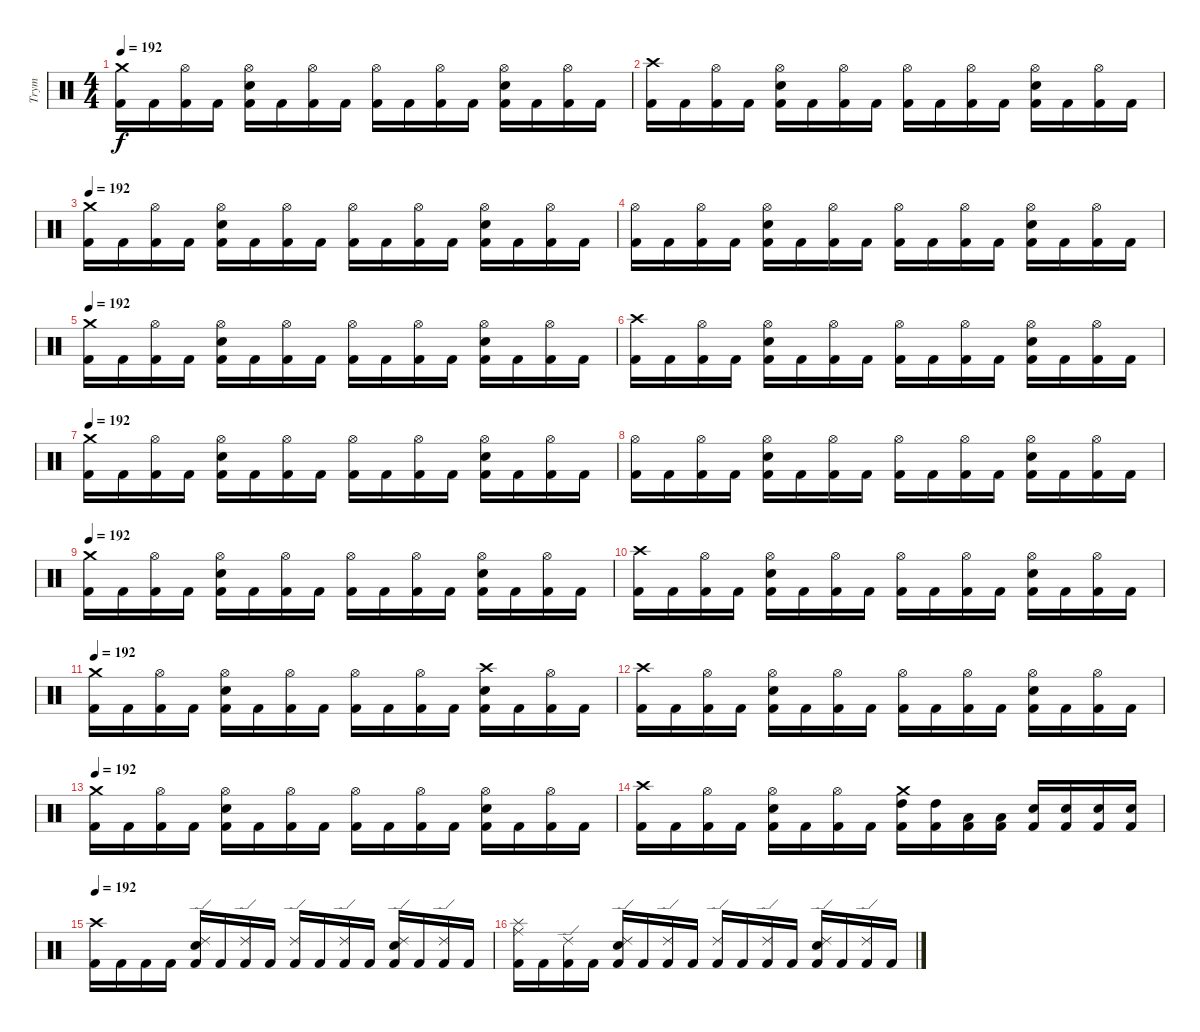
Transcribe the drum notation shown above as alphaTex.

\track ("Trym" "Trym") {instrument percussion}
\staff {score}
\articulation defaults
\ts (4 4)
\tempo 192
\clef neutral
\ks c
("Crash medium (hit)" "Kick (hit) 2").16{dy f} "Kick (hit) 2".16 ("Hi-Hat (open)" "Kick (hit) 2").16 "Kick (hit) 2".16 ("Hi-Hat (open)" "Electric Snare (hit)" "Kick (hit) 2").16 "Kick (hit) 2".16 ("Hi-Hat (open)" "Kick (hit) 2").16 "Kick (hit) 2".16 ("Hi-Hat (open)" "Kick (hit) 2").16 "Kick (hit) 2".16 ("Hi-Hat (open)" "Kick (hit) 2").16 "Kick (hit) 2".16 ("Hi-Hat (open)" "Electric Snare (hit)" "Kick (hit) 2").16 "Kick (hit) 2".16 ("Hi-Hat (open)" "Kick (hit) 2").16 "Kick (hit) 2".16 |
("Crash high (hit)" "Kick (hit) 2").16 "Kick (hit) 2".16 ("Hi-Hat (open)" "Kick (hit) 2").16 "Kick (hit) 2".16 ("Hi-Hat (open)" "Electric Snare (hit)" "Kick (hit) 2").16 "Kick (hit) 2".16 ("Hi-Hat (open)" "Kick (hit) 2").16 "Kick (hit) 2".16 ("Hi-Hat (open)" "Kick (hit) 2").16 "Kick (hit) 2".16 ("Hi-Hat (open)" "Kick (hit) 2").16 "Kick (hit) 2".16 ("Hi-Hat (open)" "Electric Snare (hit)" "Kick (hit) 2").16 "Kick (hit) 2".16 ("Hi-Hat (open)" "Kick (hit) 2").16 "Kick (hit) 2".16 |
\tempo 192
("Crash medium (hit)" "Kick (hit) 2").16 "Kick (hit) 2".16 ("Hi-Hat (open)" "Kick (hit) 2").16 "Kick (hit) 2".16 ("Hi-Hat (open)" "Electric Snare (hit)" "Kick (hit) 2").16 "Kick (hit) 2".16 ("Hi-Hat (open)" "Kick (hit) 2").16 "Kick (hit) 2".16 ("Hi-Hat (open)" "Kick (hit) 2").16 "Kick (hit) 2".16 ("Hi-Hat (open)" "Kick (hit) 2").16 "Kick (hit) 2".16 ("Hi-Hat (open)" "Electric Snare (hit)" "Kick (hit) 2").16 "Kick (hit) 2".16 ("Hi-Hat (open)" "Kick (hit) 2").16 "Kick (hit) 2".16 |
("Hi-Hat (open)" "Kick (hit) 2").16 "Kick (hit) 2".16 ("Hi-Hat (open)" "Kick (hit) 2").16 "Kick (hit) 2".16 ("Hi-Hat (open)" "Electric Snare (hit)" "Kick (hit) 2").16 "Kick (hit) 2".16 ("Hi-Hat (open)" "Kick (hit) 2").16 "Kick (hit) 2".16 ("Hi-Hat (open)" "Kick (hit) 2").16 "Kick (hit) 2".16 ("Hi-Hat (open)" "Kick (hit) 2").16 "Kick (hit) 2".16 ("Hi-Hat (open)" "Electric Snare (hit)" "Kick (hit) 2").16 "Kick (hit) 2".16 ("Hi-Hat (open)" "Kick (hit) 2").16 "Kick (hit) 2".16 |
\tempo 192
("Crash medium (hit)" "Kick (hit) 2").16 "Kick (hit) 2".16 ("Hi-Hat (open)" "Kick (hit) 2").16 "Kick (hit) 2".16 ("Hi-Hat (open)" "Electric Snare (hit)" "Kick (hit) 2").16 "Kick (hit) 2".16 ("Hi-Hat (open)" "Kick (hit) 2").16 "Kick (hit) 2".16 ("Hi-Hat (open)" "Kick (hit) 2").16 "Kick (hit) 2".16 ("Hi-Hat (open)" "Kick (hit) 2").16 "Kick (hit) 2".16 ("Hi-Hat (open)" "Electric Snare (hit)" "Kick (hit) 2").16 "Kick (hit) 2".16 ("Hi-Hat (open)" "Kick (hit) 2").16 "Kick (hit) 2".16 |
("Crash high (hit)" "Kick (hit) 2").16 "Kick (hit) 2".16 ("Hi-Hat (open)" "Kick (hit) 2").16 "Kick (hit) 2".16 ("Hi-Hat (open)" "Electric Snare (hit)" "Kick (hit) 2").16 "Kick (hit) 2".16 ("Hi-Hat (open)" "Kick (hit) 2").16 "Kick (hit) 2".16 ("Hi-Hat (open)" "Kick (hit) 2").16 "Kick (hit) 2".16 ("Hi-Hat (open)" "Kick (hit) 2").16 "Kick (hit) 2".16 ("Hi-Hat (open)" "Electric Snare (hit)" "Kick (hit) 2").16 "Kick (hit) 2".16 ("Hi-Hat (open)" "Kick (hit) 2").16 "Kick (hit) 2".16 |
\tempo 192
("Crash medium (hit)" "Kick (hit) 2").16 "Kick (hit) 2".16 ("Hi-Hat (open)" "Kick (hit) 2").16 "Kick (hit) 2".16 ("Hi-Hat (open)" "Electric Snare (hit)" "Kick (hit) 2").16 "Kick (hit) 2".16 ("Hi-Hat (open)" "Kick (hit) 2").16 "Kick (hit) 2".16 ("Hi-Hat (open)" "Kick (hit) 2").16 "Kick (hit) 2".16 ("Hi-Hat (open)" "Kick (hit) 2").16 "Kick (hit) 2".16 ("Hi-Hat (open)" "Electric Snare (hit)" "Kick (hit) 2").16 "Kick (hit) 2".16 ("Hi-Hat (open)" "Kick (hit) 2").16 "Kick (hit) 2".16 |
("Hi-Hat (open)" "Kick (hit) 2").16 "Kick (hit) 2".16 ("Hi-Hat (open)" "Kick (hit) 2").16 "Kick (hit) 2".16 ("Hi-Hat (open)" "Electric Snare (hit)" "Kick (hit) 2").16 "Kick (hit) 2".16 ("Hi-Hat (open)" "Kick (hit) 2").16 "Kick (hit) 2".16 ("Hi-Hat (open)" "Kick (hit) 2").16 "Kick (hit) 2".16 ("Hi-Hat (open)" "Kick (hit) 2").16 "Kick (hit) 2".16 ("Hi-Hat (open)" "Electric Snare (hit)" "Kick (hit) 2").16 "Kick (hit) 2".16 ("Hi-Hat (open)" "Kick (hit) 2").16 "Kick (hit) 2".16 |
\tempo 192
("Crash medium (hit)" "Kick (hit) 2").16 "Kick (hit) 2".16 ("Hi-Hat (open)" "Kick (hit) 2").16 "Kick (hit) 2".16 ("Hi-Hat (open)" "Electric Snare (hit)" "Kick (hit) 2").16 "Kick (hit) 2".16 ("Hi-Hat (open)" "Kick (hit) 2").16 "Kick (hit) 2".16 ("Hi-Hat (open)" "Kick (hit) 2").16 "Kick (hit) 2".16 ("Hi-Hat (open)" "Kick (hit) 2").16 "Kick (hit) 2".16 ("Hi-Hat (open)" "Electric Snare (hit)" "Kick (hit) 2").16 "Kick (hit) 2".16 ("Hi-Hat (open)" "Kick (hit) 2").16 "Kick (hit) 2".16 |
("Crash high (hit)" "Kick (hit) 2").16 "Kick (hit) 2".16 ("Hi-Hat (open)" "Kick (hit) 2").16 "Kick (hit) 2".16 ("Hi-Hat (open)" "Electric Snare (hit)" "Kick (hit) 2").16 "Kick (hit) 2".16 ("Hi-Hat (open)" "Kick (hit) 2").16 "Kick (hit) 2".16 ("Hi-Hat (open)" "Kick (hit) 2").16 "Kick (hit) 2".16 ("Hi-Hat (open)" "Kick (hit) 2").16 "Kick (hit) 2".16 ("Hi-Hat (open)" "Electric Snare (hit)" "Kick (hit) 2").16 "Kick (hit) 2".16 ("Hi-Hat (open)" "Kick (hit) 2").16 "Kick (hit) 2".16 |
\tempo 192
("Crash medium (hit)" "Kick (hit) 2").16 "Kick (hit) 2".16 ("Hi-Hat (open)" "Kick (hit) 2").16 "Kick (hit) 2".16 ("Hi-Hat (open)" "Electric Snare (hit)" "Kick (hit) 2").16 "Kick (hit) 2".16 ("Hi-Hat (open)" "Kick (hit) 2").16 "Kick (hit) 2".16 ("Hi-Hat (open)" "Kick (hit) 2").16 "Kick (hit) 2".16 ("Hi-Hat (open)" "Kick (hit) 2").16 "Kick (hit) 2".16 ("Crash high (hit)" "Electric Snare (hit)" "Kick (hit) 2").16 "Kick (hit) 2".16 ("Hi-Hat (open)" "Kick (hit) 2").16 "Kick (hit) 2".16 |
("Crash high (hit)" "Kick (hit) 2").16 "Kick (hit) 2".16 ("Hi-Hat (open)" "Kick (hit) 2").16 "Kick (hit) 2".16 ("Hi-Hat (open)" "Electric Snare (hit)" "Kick (hit) 2").16 "Kick (hit) 2".16 ("Hi-Hat (open)" "Kick (hit) 2").16 "Kick (hit) 2".16 ("Hi-Hat (open)" "Kick (hit) 2").16 "Kick (hit) 2".16 ("Hi-Hat (open)" "Kick (hit) 2").16 "Kick (hit) 2".16 ("Hi-Hat (open)" "Electric Snare (hit)" "Kick (hit) 2").16 "Kick (hit) 2".16 ("Hi-Hat (open)" "Kick (hit) 2").16 "Kick (hit) 2".16 |
\tempo 192
("Crash medium (hit)" "Kick (hit) 2").16 "Kick (hit) 2".16 ("Hi-Hat (open)" "Kick (hit) 2").16 "Kick (hit) 2".16 ("Hi-Hat (open)" "Electric Snare (hit)" "Kick (hit) 2").16 "Kick (hit) 2".16 ("Hi-Hat (open)" "Kick (hit) 2").16 "Kick (hit) 2".16 ("Hi-Hat (open)" "Kick (hit) 2").16 "Kick (hit) 2".16 ("Hi-Hat (open)" "Kick (hit) 2").16 "Kick (hit) 2".16 ("Hi-Hat (open)" "Electric Snare (hit)" "Kick (hit) 2").16 "Kick (hit) 2".16 ("Hi-Hat (open)" "Kick (hit) 2").16 "Kick (hit) 2".16 |
("Crash high (hit)" "Kick (hit) 2").16 "Kick (hit) 2".16 ("Hi-Hat (open)" "Kick (hit) 2").16 "Kick (hit) 2".16 ("Hi-Hat (open)" "Electric Snare (hit)" "Kick (hit) 2").16 "Kick (hit) 2".16 ("Hi-Hat (open)" "Kick (hit) 2").16 "Kick (hit) 2".16 ("Crash medium (hit)" "High Tom (hit)" "Kick (hit) 2").16 ("High Tom (hit)" "Kick (hit) 2").16 ("Low Tom (hit)" "Kick (hit) 2").16 ("Low Tom (hit)" "Kick (hit) 2").16 ("Electric Snare (hit)" "Kick (hit) 2").16 ("Electric Snare (hit)" "Kick (hit) 2").16 ("Electric Snare (hit)" "Kick (hit) 2").16 ("Electric Snare (hit)" "Kick (hit) 2").16 |
\tempo 192
("Crash high (hit)" "Kick (hit) 2").16 "Kick (hit) 2".16 "Kick (hit) 2".16 "Kick (hit) 2".16 ("Ride (edge) 2" "Electric Snare (hit)" "Kick (hit) 2").16 "Kick (hit) 2".16 ("Ride (edge) 2" "Kick (hit) 2").16 "Kick (hit) 2".16 ("Ride (edge) 2" "Kick (hit) 2").16 "Kick (hit) 2".16 ("Ride (edge) 2" "Kick (hit) 2").16 "Kick (hit) 2".16 ("Ride (edge) 2" "Electric Snare (hit)" "Kick (hit) 2").16 "Kick (hit) 2".16 ("Ride (edge) 2" "Kick (hit) 2").16 "Kick (hit) 2".16 |
("Ride (middle)" "Splash (hit)" "Kick (hit) 2").16 "Kick (hit) 2".16 ("Ride (edge) 2" "Kick (hit) 2").16 "Kick (hit) 2".16 ("Ride (edge) 2" "Electric Snare (hit)" "Kick (hit) 2").16 "Kick (hit) 2".16 ("Ride (edge) 2" "Kick (hit) 2").16 "Kick (hit) 2".16 ("Ride (edge) 2" "Kick (hit) 2").16 "Kick (hit) 2".16 ("Ride (edge) 2" "Kick (hit) 2").16 "Kick (hit) 2".16 ("Ride (edge) 2" "Electric Snare (hit)" "Kick (hit) 2").16 "Kick (hit) 2".16 ("Ride (edge) 2" "Kick (hit) 2").16 "Kick (hit) 2".16
